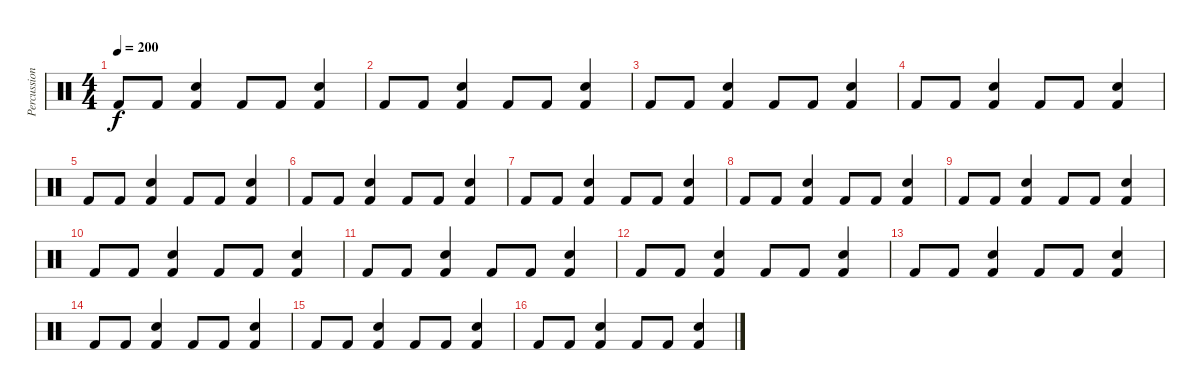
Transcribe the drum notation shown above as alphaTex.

\track ("Percussioni" "Percussion") {instrument percussion}
\staff {score}
\articulation defaults
\ts (4 4)
\tempo 200
\clef neutral
\ks c "Kick (hit) 2".8{dy f} "Kick (hit) 2".8
("Snare (hit) 2" "Kick (hit) 2").4 "Kick (hit) 2".8 "Kick (hit) 2".8 ("Snare (hit) 2" "Kick (hit) 2").4 |
"Kick (hit) 2".8 "Kick (hit) 2".8 ("Snare (hit) 2" "Kick (hit) 2").4 "Kick (hit) 2".8 "Kick (hit) 2".8 ("Snare (hit) 2" "Kick (hit) 2").4 |
"Kick (hit) 2".8 "Kick (hit) 2".8 ("Snare (hit) 2" "Kick (hit) 2").4 "Kick (hit) 2".8 "Kick (hit) 2".8 ("Snare (hit) 2" "Kick (hit) 2").4 |
"Kick (hit) 2".8 "Kick (hit) 2".8 ("Snare (hit) 2" "Kick (hit) 2").4 "Kick (hit) 2".8 "Kick (hit) 2".8 ("Snare (hit) 2" "Kick (hit) 2").4 |
"Kick (hit) 2".8 "Kick (hit) 2".8 ("Snare (hit) 2" "Kick (hit) 2").4 "Kick (hit) 2".8 "Kick (hit) 2".8 ("Snare (hit) 2" "Kick (hit) 2").4 |
"Kick (hit) 2".8 "Kick (hit) 2".8 ("Snare (hit) 2" "Kick (hit) 2").4 "Kick (hit) 2".8 "Kick (hit) 2".8 ("Snare (hit) 2" "Kick (hit) 2").4 |
"Kick (hit) 2".8 "Kick (hit) 2".8 ("Snare (hit) 2" "Kick (hit) 2").4 "Kick (hit) 2".8 "Kick (hit) 2".8 ("Snare (hit) 2" "Kick (hit) 2").4 |
"Kick (hit) 2".8 "Kick (hit) 2".8 ("Snare (hit) 2" "Kick (hit) 2").4 "Kick (hit) 2".8 "Kick (hit) 2".8 ("Snare (hit) 2" "Kick (hit) 2").4 |
"Kick (hit) 2".8 "Kick (hit) 2".8 ("Snare (hit) 2" "Kick (hit) 2").4 "Kick (hit) 2".8 "Kick (hit) 2".8 ("Snare (hit) 2" "Kick (hit) 2").4 |
"Kick (hit) 2".8 "Kick (hit) 2".8 ("Snare (hit) 2" "Kick (hit) 2").4 "Kick (hit) 2".8 "Kick (hit) 2".8 ("Snare (hit) 2" "Kick (hit) 2").4 |
"Kick (hit) 2".8 "Kick (hit) 2".8 ("Snare (hit) 2" "Kick (hit) 2").4 "Kick (hit) 2".8 "Kick (hit) 2".8 ("Snare (hit) 2" "Kick (hit) 2").4 |
"Kick (hit) 2".8 "Kick (hit) 2".8 ("Snare (hit) 2" "Kick (hit) 2").4 "Kick (hit) 2".8 "Kick (hit) 2".8 ("Snare (hit) 2" "Kick (hit) 2").4 |
"Kick (hit) 2".8 "Kick (hit) 2".8 ("Snare (hit) 2" "Kick (hit) 2").4 "Kick (hit) 2".8 "Kick (hit) 2".8 ("Snare (hit) 2" "Kick (hit) 2").4 |
"Kick (hit) 2".8 "Kick (hit) 2".8 ("Snare (hit) 2" "Kick (hit) 2").4 "Kick (hit) 2".8 "Kick (hit) 2".8 ("Snare (hit) 2" "Kick (hit) 2").4 |
"Kick (hit) 2".8 "Kick (hit) 2".8 ("Snare (hit) 2" "Kick (hit) 2").4 "Kick (hit) 2".8 "Kick (hit) 2".8 ("Snare (hit) 2" "Kick (hit) 2").4 |
"Kick (hit) 2".8 "Kick (hit) 2".8 ("Snare (hit) 2" "Kick (hit) 2").4 "Kick (hit) 2".8 "Kick (hit) 2".8 ("Snare (hit) 2" "Kick (hit) 2").4
